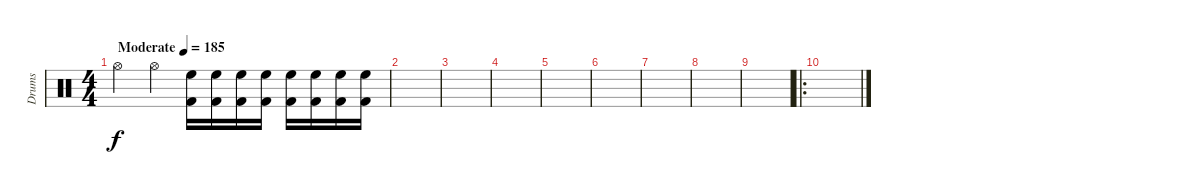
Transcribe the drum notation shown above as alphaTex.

\track ("Drums" "Drums") {instrument percussion}
\staff {score}
\articulation defaults
\ts (4 4)
\tempo (185 "Moderate")
\clef neutral
\ks c "Hi-Hat (open)".4{dy f} "Hi-Hat (open)".4
("High Floor Tom (hit)" "Kick (hit) 2").16 ("High Floor Tom (hit)" "Kick (hit) 2").16 ("High Floor Tom (hit)" "Kick (hit) 2").16 ("High Floor Tom (hit)" "Kick (hit) 2").16 ("High Floor Tom (hit)" "Kick (hit) 2").16 ("High Floor Tom (hit)" "Kick (hit) 2").16 ("High Floor Tom (hit)" "Kick (hit) 2").16 ("High Floor Tom (hit)" "Kick (hit) 2").16 |
|
|
|
|
|
|
|
|
\ro
